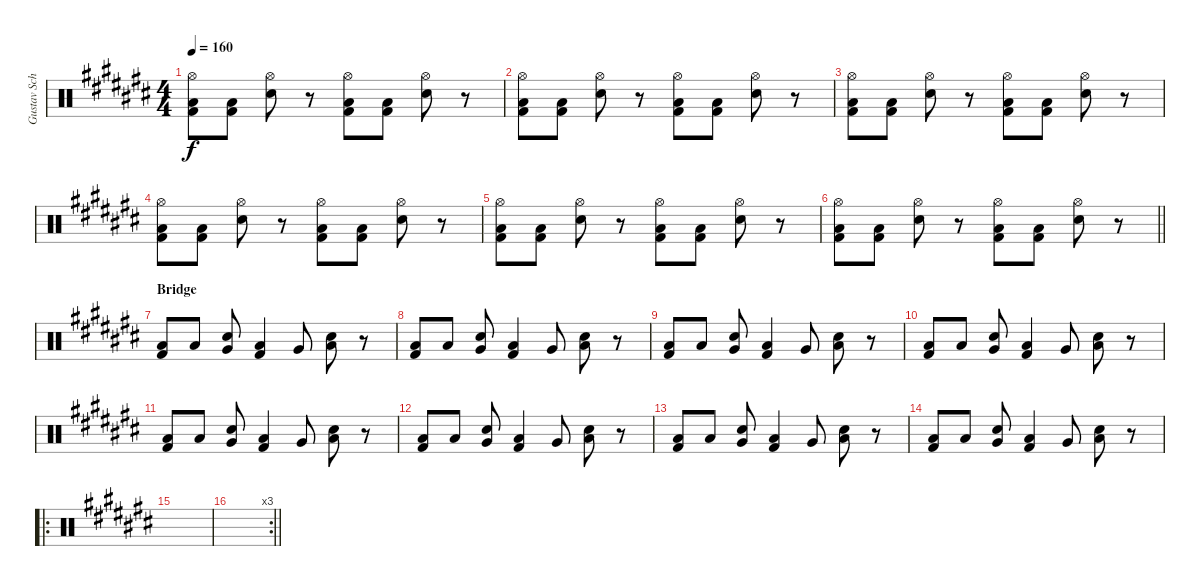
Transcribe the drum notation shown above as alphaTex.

\track ("Gustav Schäfer" "Gustav Sch") {instrument percussion}
\staff {score}
\articulation defaults
\ts (4 4)
\tempo 160
\clef neutral
\ks c#
("Low Floor Tom (hit)" "Kick (hit) 2" "Hi-Hat (open)").8{dy f} ("Low Floor Tom (hit)" "Kick (hit) 2").8 ("Electric Snare (hit)" "Hi-Hat (open)").8 r.8 ("Low Floor Tom (hit)" "Kick (hit) 2" "Hi-Hat (open)").8 ("Low Floor Tom (hit)" "Kick (hit) 2").8 ("Electric Snare (hit)" "Hi-Hat (open)").8 r.8 |
("Low Floor Tom (hit)" "Kick (hit) 2" "Hi-Hat (open)").8 ("Low Floor Tom (hit)" "Kick (hit) 2").8 ("Electric Snare (hit)" "Hi-Hat (open)").8 r.8 ("Low Floor Tom (hit)" "Kick (hit) 2" "Hi-Hat (open)").8 ("Low Floor Tom (hit)" "Kick (hit) 2").8 ("Electric Snare (hit)" "Hi-Hat (open)").8 r.8 |
("Low Floor Tom (hit)" "Kick (hit) 2" "Hi-Hat (open)").8 ("Low Floor Tom (hit)" "Kick (hit) 2").8 ("Electric Snare (hit)" "Hi-Hat (open)").8 r.8 ("Low Floor Tom (hit)" "Kick (hit) 2" "Hi-Hat (open)").8 ("Low Floor Tom (hit)" "Kick (hit) 2").8 ("Electric Snare (hit)" "Hi-Hat (open)").8 r.8 |
("Low Floor Tom (hit)" "Kick (hit) 2" "Hi-Hat (open)").8 ("Low Floor Tom (hit)" "Kick (hit) 2").8 ("Electric Snare (hit)" "Hi-Hat (open)").8 r.8 ("Low Floor Tom (hit)" "Kick (hit) 2" "Hi-Hat (open)").8 ("Low Floor Tom (hit)" "Kick (hit) 2").8 ("Electric Snare (hit)" "Hi-Hat (open)").8 r.8 |
("Low Floor Tom (hit)" "Kick (hit) 2" "Hi-Hat (open)").8 ("Low Floor Tom (hit)" "Kick (hit) 2").8 ("Electric Snare (hit)" "Hi-Hat (open)").8 r.8 ("Low Floor Tom (hit)" "Kick (hit) 2" "Hi-Hat (open)").8 ("Low Floor Tom (hit)" "Kick (hit) 2").8 ("Electric Snare (hit)" "Hi-Hat (open)").8 r.8 |
\barLineRight lightlight
("Low Floor Tom (hit)" "Kick (hit) 2" "Hi-Hat (open)").8 ("Low Floor Tom (hit)" "Kick (hit) 2").8 ("Electric Snare (hit)" "Hi-Hat (open)").8 r.8 ("Low Floor Tom (hit)" "Kick (hit) 2" "Hi-Hat (open)").8 ("Low Floor Tom (hit)" "Kick (hit) 2").8 ("Electric Snare (hit)" "Hi-Hat (open)").8 r.8 |
\section ("" "Bridge")
("Low Floor Tom (hit)" "Kick (hit) 2").8 "Low Floor Tom (hit)".8 ("Electric Snare (hit)" "Very Low Tom (hit)").8 ("Low Floor Tom (hit)" "Kick (hit) 2").4 "Very Low Tom (hit)".8 ("Electric Snare (hit)" "Low Floor Tom (hit)").8 r.8 |
("Low Floor Tom (hit)" "Kick (hit) 2").8 "Low Floor Tom (hit)".8 ("Electric Snare (hit)" "Very Low Tom (hit)").8 ("Low Floor Tom (hit)" "Kick (hit) 2").4 "Very Low Tom (hit)".8 ("Electric Snare (hit)" "Low Floor Tom (hit)").8 r.8 |
("Low Floor Tom (hit)" "Kick (hit) 2").8 "Low Floor Tom (hit)".8 ("Electric Snare (hit)" "Very Low Tom (hit)").8 ("Low Floor Tom (hit)" "Kick (hit) 2").4 "Very Low Tom (hit)".8 ("Electric Snare (hit)" "Low Floor Tom (hit)").8 r.8 |
("Low Floor Tom (hit)" "Kick (hit) 2").8 "Low Floor Tom (hit)".8 ("Electric Snare (hit)" "Very Low Tom (hit)").8 ("Low Floor Tom (hit)" "Kick (hit) 2").4 "Very Low Tom (hit)".8 ("Electric Snare (hit)" "Low Floor Tom (hit)").8 r.8 |
("Low Floor Tom (hit)" "Kick (hit) 2").8 "Low Floor Tom (hit)".8 ("Electric Snare (hit)" "Very Low Tom (hit)").8 ("Low Floor Tom (hit)" "Kick (hit) 2").4 "Very Low Tom (hit)".8 ("Electric Snare (hit)" "Low Floor Tom (hit)").8 r.8 |
("Low Floor Tom (hit)" "Kick (hit) 2").8 "Low Floor Tom (hit)".8 ("Electric Snare (hit)" "Very Low Tom (hit)").8 ("Low Floor Tom (hit)" "Kick (hit) 2").4 "Very Low Tom (hit)".8 ("Electric Snare (hit)" "Low Floor Tom (hit)").8 r.8 |
("Low Floor Tom (hit)" "Kick (hit) 2").8 "Low Floor Tom (hit)".8 ("Electric Snare (hit)" "Very Low Tom (hit)").8 ("Low Floor Tom (hit)" "Kick (hit) 2").4 "Very Low Tom (hit)".8 ("Electric Snare (hit)" "Low Floor Tom (hit)").8 r.8 |
("Low Floor Tom (hit)" "Kick (hit) 2").8 "Low Floor Tom (hit)".8 ("Electric Snare (hit)" "Very Low Tom (hit)").8 ("Low Floor Tom (hit)" "Kick (hit) 2").4 "Very Low Tom (hit)".8 ("Electric Snare (hit)" "Low Floor Tom (hit)").8 r.8 |
\ro
|
\rc 3
\barLineRight lightlight
